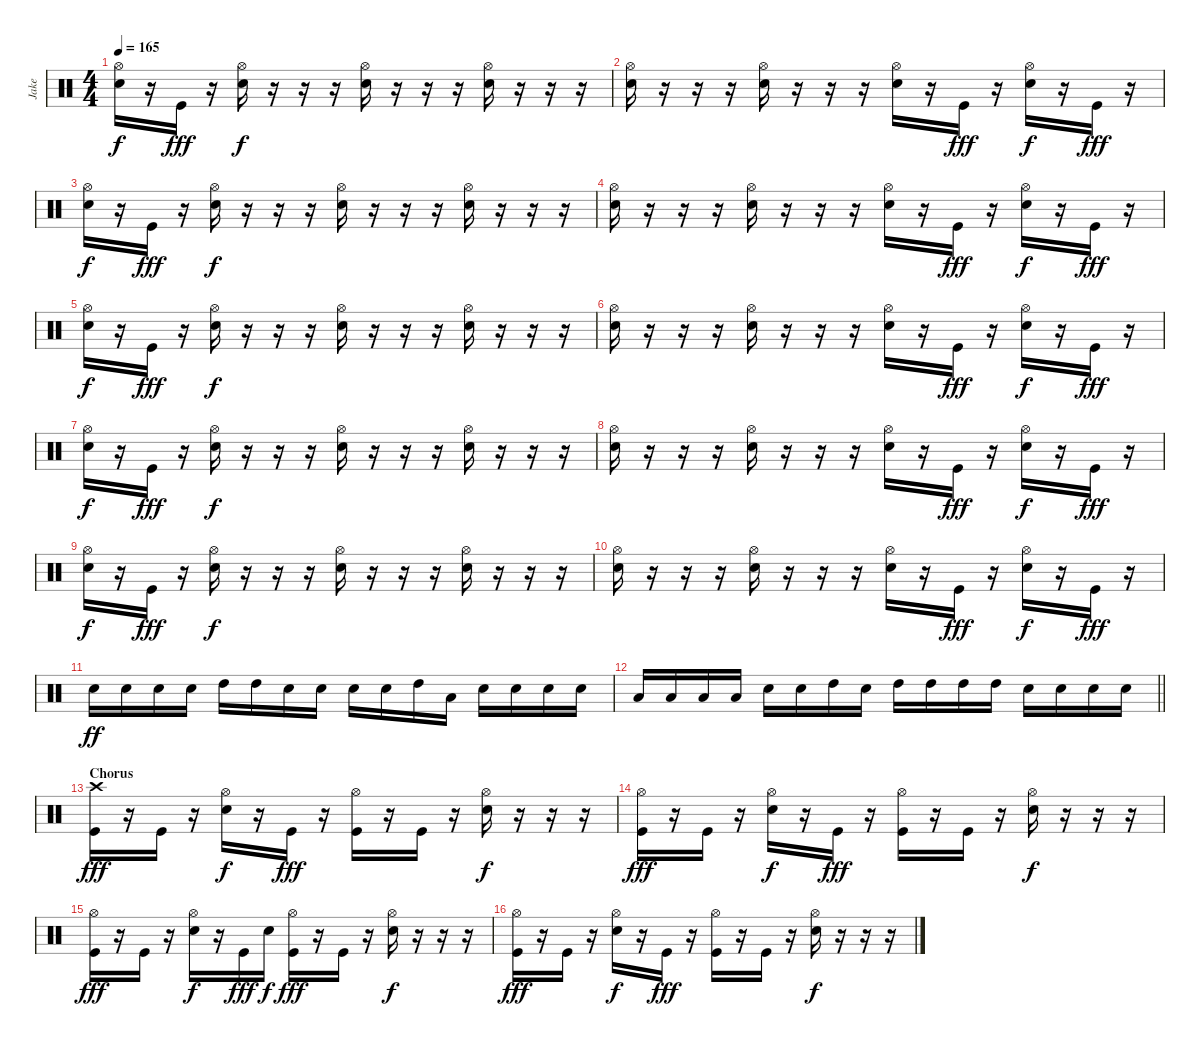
\track ("Jake" "Jake") {instrument percussion}
\staff {score}
\articulation defaults
\ts (4 4)
\tempo 165
\clef neutral
\ks c
("Hi-Hat (open)" "Electric Snare (hit)").16{dy f} r.16 "Kick (hit)".16{dy fff} r.16 ("Hi-Hat (open)" "Electric Snare (hit)").16{dy f} r.16 r.16 r.16 ("Hi-Hat (open)" "Electric Snare (hit)").16 r.16 r.16 r.16 ("Hi-Hat (open)" "Electric Snare (hit)").16 r.16 r.16 r.16 |
("Hi-Hat (open)" "Electric Snare (hit)").16 r.16 r.16 r.16 ("Hi-Hat (open)" "Electric Snare (hit)").16 r.16 r.16 r.16 ("Hi-Hat (open)" "Electric Snare (hit)").16 r.16 "Kick (hit)".16{dy fff} r.16 ("Hi-Hat (open)" "Electric Snare (hit)").16{dy f} r.16 "Kick (hit)".16{dy fff} r.16 |
("Hi-Hat (open)" "Electric Snare (hit)").16{dy f} r.16 "Kick (hit)".16{dy fff} r.16 ("Hi-Hat (open)" "Electric Snare (hit)").16{dy f} r.16 r.16 r.16 ("Hi-Hat (open)" "Electric Snare (hit)").16 r.16 r.16 r.16 ("Hi-Hat (open)" "Electric Snare (hit)").16 r.16 r.16 r.16 |
("Hi-Hat (open)" "Electric Snare (hit)").16 r.16 r.16 r.16 ("Hi-Hat (open)" "Electric Snare (hit)").16 r.16 r.16 r.16 ("Hi-Hat (open)" "Electric Snare (hit)").16 r.16 "Kick (hit)".16{dy fff} r.16 ("Hi-Hat (open)" "Electric Snare (hit)").16{dy f} r.16 "Kick (hit)".16{dy fff} r.16 |
("Hi-Hat (open)" "Electric Snare (hit)").16{dy f} r.16 "Kick (hit)".16{dy fff} r.16 ("Hi-Hat (open)" "Electric Snare (hit)").16{dy f} r.16 r.16 r.16 ("Hi-Hat (open)" "Electric Snare (hit)").16 r.16 r.16 r.16 ("Hi-Hat (open)" "Electric Snare (hit)").16 r.16 r.16 r.16 |
("Hi-Hat (open)" "Electric Snare (hit)").16 r.16 r.16 r.16 ("Hi-Hat (open)" "Electric Snare (hit)").16 r.16 r.16 r.16 ("Hi-Hat (open)" "Electric Snare (hit)").16 r.16 "Kick (hit)".16{dy fff} r.16 ("Hi-Hat (open)" "Electric Snare (hit)").16{dy f} r.16 "Kick (hit)".16{dy fff} r.16 |
("Hi-Hat (open)" "Electric Snare (hit)").16{dy f} r.16 "Kick (hit)".16{dy fff} r.16 ("Hi-Hat (open)" "Electric Snare (hit)").16{dy f} r.16 r.16 r.16 ("Hi-Hat (open)" "Electric Snare (hit)").16 r.16 r.16 r.16 ("Hi-Hat (open)" "Electric Snare (hit)").16 r.16 r.16 r.16 |
("Hi-Hat (open)" "Electric Snare (hit)").16 r.16 r.16 r.16 ("Hi-Hat (open)" "Electric Snare (hit)").16 r.16 r.16 r.16 ("Hi-Hat (open)" "Electric Snare (hit)").16 r.16 "Kick (hit)".16{dy fff} r.16 ("Hi-Hat (open)" "Electric Snare (hit)").16{dy f} r.16 "Kick (hit)".16{dy fff} r.16 |
("Hi-Hat (open)" "Electric Snare (hit)").16{dy f} r.16 "Kick (hit)".16{dy fff} r.16 ("Hi-Hat (open)" "Electric Snare (hit)").16{dy f} r.16 r.16 r.16 ("Hi-Hat (open)" "Electric Snare (hit)").16 r.16 r.16 r.16 ("Hi-Hat (open)" "Electric Snare (hit)").16 r.16 r.16 r.16 |
("Hi-Hat (open)" "Electric Snare (hit)").16 r.16 r.16 r.16 ("Hi-Hat (open)" "Electric Snare (hit)").16 r.16 r.16 r.16 ("Hi-Hat (open)" "Electric Snare (hit)").16 r.16 "Kick (hit)".16{dy fff} r.16 ("Hi-Hat (open)" "Electric Snare (hit)").16{dy f} r.16 "Kick (hit)".16{dy fff} r.16 |
"Electric Snare (hit)".16{dy ff} "Electric Snare (hit)".16 "Electric Snare (hit)".16 "Electric Snare (hit)".16 "High Tom (hit)".16 "High Tom (hit)".16 "Electric Snare (hit)".16 "Electric Snare (hit)".16 "Electric Snare (hit)".16 "Electric Snare (hit)".16 "High Tom (hit)".16 "Low Tom (hit)".16 "Electric Snare (hit)".16 "Electric Snare (hit)".16 "Electric Snare (hit)".16 "Electric Snare (hit)".16 |
\barLineRight lightlight "Low Tom (hit)".16 "Low Tom (hit)".16 "Low Tom (hit)".16 "Low Tom (hit)".16 "Electric Snare (hit)".16 "Electric Snare (hit)".16 "High Tom (hit)".16 "Electric Snare (hit)".16 "High Tom (hit)".16 "High Tom (hit)".16 "High Tom (hit)".16 "High Tom (hit)".16 "Electric Snare (hit)".16 "Electric Snare (hit)".16 "Electric Snare (hit)".16 "Electric Snare (hit)".16
|
\section ("" "Chorus")
("Crash high (hit)" "Kick (hit)").16{dy fff} r.16 "Kick (hit)".16 r.16 ("Hi-Hat (open)" "Electric Snare (hit)").16{dy f} r.16 "Kick (hit)".16{dy fff} r.16 ("Hi-Hat (open)" "Kick (hit)").16 r.16 "Kick (hit)".16 r.16 ("Hi-Hat (open)" "Electric Snare (hit)").16{dy f} r.16 r.16 r.16 |
("Hi-Hat (open)" "Kick (hit)").16{dy fff} r.16 "Kick (hit)".16 r.16 ("Hi-Hat (open)" "Electric Snare (hit)").16{dy f} r.16 "Kick (hit)".16{dy fff} r.16 ("Hi-Hat (open)" "Kick (hit)").16 r.16 "Kick (hit)".16 r.16 ("Hi-Hat (open)" "Electric Snare (hit)").16{dy f} r.16 r.16 r.16 |
("Hi-Hat (open)" "Kick (hit)").16{dy fff} r.16 "Kick (hit)".16 r.16 ("Hi-Hat (open)" "Electric Snare (hit)").16{dy f} r.16 "Kick (hit)".16{dy fff} "Electric Snare (hit)".16{dy f} ("Hi-Hat (open)" "Kick (hit)").16{dy fff} r.16 "Kick (hit)".16 r.16 ("Hi-Hat (open)" "Electric Snare (hit)").16{dy f} r.16 r.16 r.16 |
("Hi-Hat (open)" "Kick (hit)").16{dy fff} r.16 "Kick (hit)".16 r.16 ("Hi-Hat (open)" "Electric Snare (hit)").16{dy f} r.16 "Kick (hit)".16{dy fff} r.16 ("Hi-Hat (open)" "Kick (hit)").16 r.16 "Kick (hit)".16 r.16 ("Hi-Hat (open)" "Electric Snare (hit)").16{dy f} r.16 r.16 r.16
